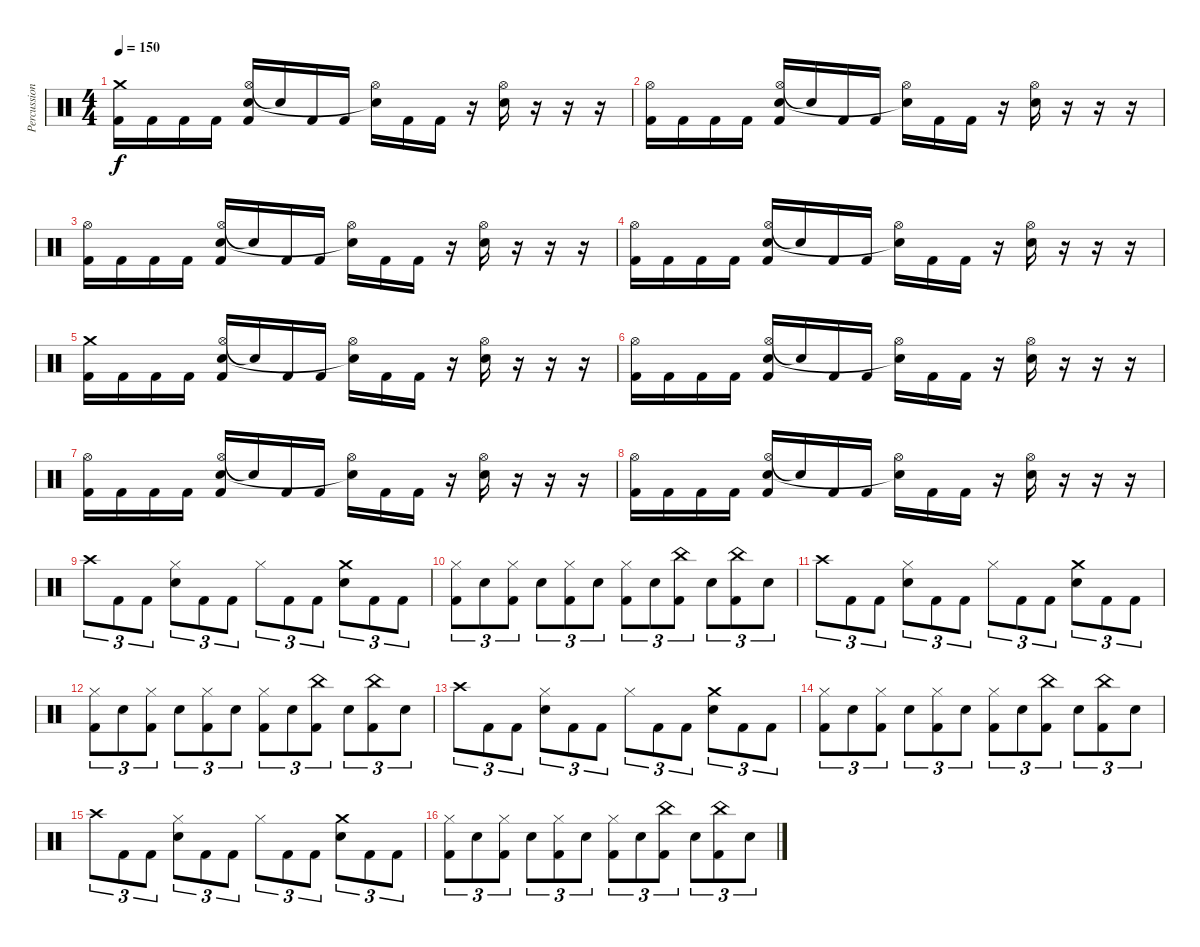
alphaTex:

\track ("Percussion" "Percussion") {instrument percussion}
\staff {score}
\articulation defaults
\ts (4 4)
\tempo 150
\clef neutral
\ks c
("Crash medium (hit)" "Kick (hit) 2").16{dy f} "Kick (hit) 2".16 "Kick (hit) 2".16 "Kick (hit) 2".16 ("Hi-Hat (open)" "Electric Snare (hit)" "Kick (hit) 2").16 "Snare (hit)"{t}.16 "Kick (hit) 2".16 "Kick (hit) 2".16 ("Hi-Hat (open)" "Snare (hit)"{t}).16 "Kick (hit) 2".16 "Kick (hit) 2".16 r.16 ("Hi-Hat (open)" "Electric Snare (hit)").16 r.16 r.16 r.16 |
("Hi-Hat (open)" "Kick (hit) 2").16 "Kick (hit) 2".16 "Kick (hit) 2".16 "Kick (hit) 2".16 ("Hi-Hat (open)" "Electric Snare (hit)" "Kick (hit) 2").16 "Snare (hit)"{t}.16 "Kick (hit) 2".16 "Kick (hit) 2".16 ("Hi-Hat (open)" "Snare (hit)"{t}).16 "Kick (hit) 2".16 "Kick (hit) 2".16 r.16 ("Hi-Hat (open)" "Electric Snare (hit)").16 r.16 r.16 r.16 |
("Hi-Hat (open)" "Kick (hit) 2").16 "Kick (hit) 2".16 "Kick (hit) 2".16 "Kick (hit) 2".16 ("Hi-Hat (open)" "Electric Snare (hit)" "Kick (hit) 2").16 "Snare (hit)"{t}.16 "Kick (hit) 2".16 "Kick (hit) 2".16 ("Hi-Hat (open)" "Snare (hit)"{t}).16 "Kick (hit) 2".16 "Kick (hit) 2".16 r.16 ("Hi-Hat (open)" "Electric Snare (hit)").16 r.16 r.16 r.16 |
("Hi-Hat (open)" "Kick (hit) 2").16 "Kick (hit) 2".16 "Kick (hit) 2".16 "Kick (hit) 2".16 ("Hi-Hat (open)" "Electric Snare (hit)" "Kick (hit) 2").16 "Snare (hit)"{t}.16 "Kick (hit) 2".16 "Kick (hit) 2".16 ("Hi-Hat (open)" "Snare (hit)"{t}).16 "Kick (hit) 2".16 "Kick (hit) 2".16 r.16 ("Hi-Hat (open)" "Electric Snare (hit)").16 r.16 r.16 r.16 |
("Crash medium (hit)" "Kick (hit) 2").16 "Kick (hit) 2".16 "Kick (hit) 2".16 "Kick (hit) 2".16 ("Hi-Hat (open)" "Electric Snare (hit)" "Kick (hit) 2").16 "Snare (hit)"{t}.16 "Kick (hit) 2".16 "Kick (hit) 2".16 ("Hi-Hat (open)" "Snare (hit)"{t}).16 "Kick (hit) 2".16 "Kick (hit) 2".16 r.16 ("Hi-Hat (open)" "Electric Snare (hit)").16 r.16 r.16 r.16 |
("Hi-Hat (open)" "Kick (hit) 2").16 "Kick (hit) 2".16 "Kick (hit) 2".16 "Kick (hit) 2".16 ("Hi-Hat (open)" "Electric Snare (hit)" "Kick (hit) 2").16 "Snare (hit)"{t}.16 "Kick (hit) 2".16 "Kick (hit) 2".16 ("Hi-Hat (open)" "Snare (hit)"{t}).16 "Kick (hit) 2".16 "Kick (hit) 2".16 r.16 ("Hi-Hat (open)" "Electric Snare (hit)").16 r.16 r.16 r.16 |
("Hi-Hat (open)" "Kick (hit) 2").16 "Kick (hit) 2".16 "Kick (hit) 2".16 "Kick (hit) 2".16 ("Hi-Hat (open)" "Electric Snare (hit)" "Kick (hit) 2").16 "Snare (hit)"{t}.16 "Kick (hit) 2".16 "Kick (hit) 2".16 ("Hi-Hat (open)" "Snare (hit)"{t}).16 "Kick (hit) 2".16 "Kick (hit) 2".16 r.16 ("Hi-Hat (open)" "Electric Snare (hit)").16 r.16 r.16 r.16 |
("Hi-Hat (open)" "Kick (hit) 2").16 "Kick (hit) 2".16 "Kick (hit) 2".16 "Kick (hit) 2".16 ("Hi-Hat (open)" "Electric Snare (hit)" "Kick (hit) 2").16 "Snare (hit)"{t}.16 "Kick (hit) 2".16 "Kick (hit) 2".16 ("Hi-Hat (open)" "Snare (hit)"{t}).16 "Kick (hit) 2".16 "Kick (hit) 2".16 r.16 ("Hi-Hat (open)" "Electric Snare (hit)").16 r.16 r.16 r.16 |
"Crash high (hit)".8{tu (3 2)} "Kick (hit) 2".8{tu (3 2)} "Kick (hit) 2".8{tu (3 2)} ("Hi-Hat (closed)" "Electric Snare (hit)").8{tu (3 2)} "Kick (hit) 2".8{tu (3 2)} "Kick (hit) 2".8{tu (3 2)} "Hi-Hat (closed)".8{tu (3 2)} "Kick (hit) 2".8{tu (3 2)} "Kick (hit) 2".8{tu (3 2)} ("Crash medium (hit)" "Electric Snare (hit)").8{tu (3 2)} "Kick (hit) 2".8{tu (3 2)} "Kick (hit) 2".8{tu (3 2)} |
("Hi-Hat (closed)" "Kick (hit) 2").8{tu (3 2)} "Electric Snare (hit)".8{tu (3 2)} ("Hi-Hat (closed)" "Kick (hit) 2").8{tu (3 2)} "Electric Snare (hit)".8{tu (3 2)} ("Hi-Hat (closed)" "Kick (hit) 2").8{tu (3 2)} "Electric Snare (hit)".8{tu (3 2)} ("Hi-Hat (closed)" "Kick (hit) 2").8{tu (3 2)} "Electric Snare (hit)".8{tu (3 2)} ("China (hit)" "Kick (hit) 2").8{tu (3 2)} "Electric Snare (hit)".8{tu (3 2)} ("China (hit)" "Kick (hit) 2").8{tu (3 2)} "Electric Snare (hit)".8{tu (3 2)} |
"Crash high (hit)".8{tu (3 2)} "Kick (hit) 2".8{tu (3 2)} "Kick (hit) 2".8{tu (3 2)} ("Hi-Hat (closed)" "Electric Snare (hit)").8{tu (3 2)} "Kick (hit) 2".8{tu (3 2)} "Kick (hit) 2".8{tu (3 2)} "Hi-Hat (closed)".8{tu (3 2)} "Kick (hit) 2".8{tu (3 2)} "Kick (hit) 2".8{tu (3 2)} ("Crash medium (hit)" "Electric Snare (hit)").8{tu (3 2)} "Kick (hit) 2".8{tu (3 2)} "Kick (hit) 2".8{tu (3 2)} |
("Hi-Hat (closed)" "Kick (hit) 2").8{tu (3 2)} "Electric Snare (hit)".8{tu (3 2)} ("Hi-Hat (closed)" "Kick (hit) 2").8{tu (3 2)} "Electric Snare (hit)".8{tu (3 2)} ("Hi-Hat (closed)" "Kick (hit) 2").8{tu (3 2)} "Electric Snare (hit)".8{tu (3 2)} ("Hi-Hat (closed)" "Kick (hit) 2").8{tu (3 2)} "Electric Snare (hit)".8{tu (3 2)} ("China (hit)" "Kick (hit) 2").8{tu (3 2)} "Electric Snare (hit)".8{tu (3 2)} ("China (hit)" "Kick (hit) 2").8{tu (3 2)} "Electric Snare (hit)".8{tu (3 2)} |
"Crash high (hit)".8{tu (3 2)} "Kick (hit) 2".8{tu (3 2)} "Kick (hit) 2".8{tu (3 2)} ("Hi-Hat (closed)" "Electric Snare (hit)").8{tu (3 2)} "Kick (hit) 2".8{tu (3 2)} "Kick (hit) 2".8{tu (3 2)} "Hi-Hat (closed)".8{tu (3 2)} "Kick (hit) 2".8{tu (3 2)} "Kick (hit) 2".8{tu (3 2)} ("Crash medium (hit)" "Electric Snare (hit)").8{tu (3 2)} "Kick (hit) 2".8{tu (3 2)} "Kick (hit) 2".8{tu (3 2)} |
("Hi-Hat (closed)" "Kick (hit) 2").8{tu (3 2)} "Electric Snare (hit)".8{tu (3 2)} ("Hi-Hat (closed)" "Kick (hit) 2").8{tu (3 2)} "Electric Snare (hit)".8{tu (3 2)} ("Hi-Hat (closed)" "Kick (hit) 2").8{tu (3 2)} "Electric Snare (hit)".8{tu (3 2)} ("Hi-Hat (closed)" "Kick (hit) 2").8{tu (3 2)} "Electric Snare (hit)".8{tu (3 2)} ("China (hit)" "Kick (hit) 2").8{tu (3 2)} "Electric Snare (hit)".8{tu (3 2)} ("China (hit)" "Kick (hit) 2").8{tu (3 2)} "Electric Snare (hit)".8{tu (3 2)} |
"Crash high (hit)".8{tu (3 2)} "Kick (hit) 2".8{tu (3 2)} "Kick (hit) 2".8{tu (3 2)} ("Hi-Hat (closed)" "Electric Snare (hit)").8{tu (3 2)} "Kick (hit) 2".8{tu (3 2)} "Kick (hit) 2".8{tu (3 2)} "Hi-Hat (closed)".8{tu (3 2)} "Kick (hit) 2".8{tu (3 2)} "Kick (hit) 2".8{tu (3 2)} ("Crash medium (hit)" "Electric Snare (hit)").8{tu (3 2)} "Kick (hit) 2".8{tu (3 2)} "Kick (hit) 2".8{tu (3 2)} |
("Hi-Hat (closed)" "Kick (hit) 2").8{tu (3 2)} "Electric Snare (hit)".8{tu (3 2)} ("Hi-Hat (closed)" "Kick (hit) 2").8{tu (3 2)} "Electric Snare (hit)".8{tu (3 2)} ("Hi-Hat (closed)" "Kick (hit) 2").8{tu (3 2)} "Electric Snare (hit)".8{tu (3 2)} ("Hi-Hat (closed)" "Kick (hit) 2").8{tu (3 2)} "Electric Snare (hit)".8{tu (3 2)} ("China (hit)" "Kick (hit) 2").8{tu (3 2)} "Electric Snare (hit)".8{tu (3 2)} ("China (hit)" "Kick (hit) 2").8{tu (3 2)} "Electric Snare (hit)".8{tu (3 2)}
